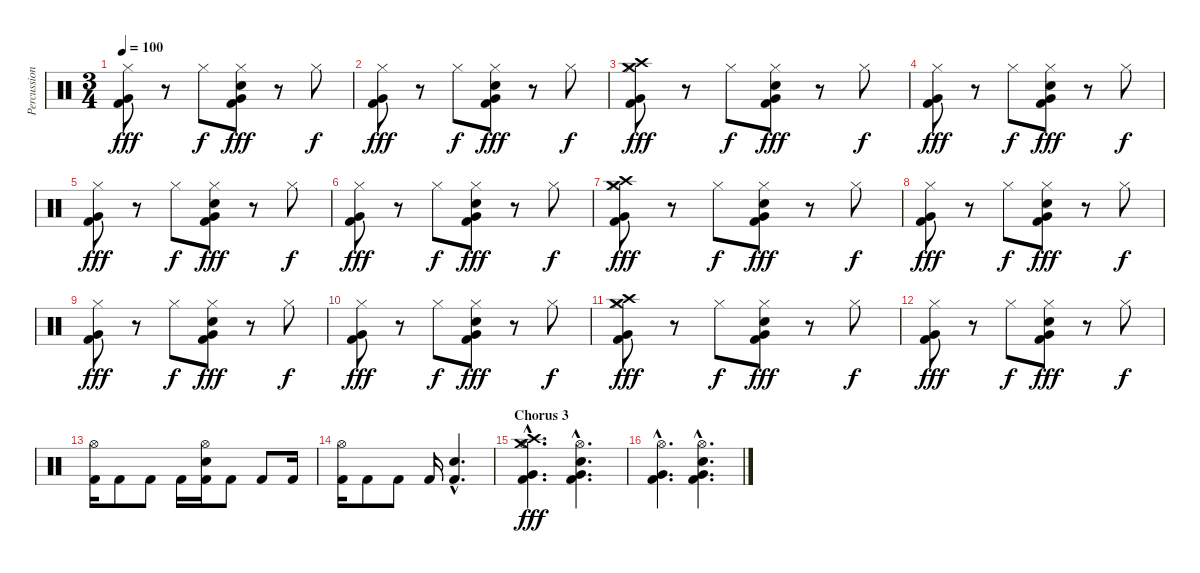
\track ("Percussion" "Percussion") {instrument percussion}
\staff {score}
\articulation defaults
\ts (3 4)
\tempo 100
\clef neutral
\ks c
("Very Low Tom (hit)" "Kick (hit) 2" "Hi-Hat (closed)").8{dy fff} r.8 "Hi-Hat (closed)".8{dy f} ("Snare (hit) 2" "Kick (hit) 2" "Very Low Tom (hit)" "Hi-Hat (closed)").8{dy fff} r.8 "Hi-Hat (closed)".8{dy f} |
("Very Low Tom (hit)" "Kick (hit) 2" "Hi-Hat (closed)").8{dy fff} r.8 "Hi-Hat (closed)".8{dy f} ("Snare (hit) 2" "Kick (hit) 2" "Very Low Tom (hit)" "Hi-Hat (closed)").8{dy fff} r.8 "Hi-Hat (closed)".8{dy f} |
("Very Low Tom (hit)" "Kick (hit) 2" "Crash medium (hit)" "Crash high (hit)" "Hi-Hat (closed)").8{dy fff} r.8 "Hi-Hat (closed)".8{dy f} ("Snare (hit) 2" "Kick (hit) 2" "Very Low Tom (hit)" "Hi-Hat (closed)").8{dy fff} r.8 "Hi-Hat (closed)".8{dy f} |
("Very Low Tom (hit)" "Kick (hit) 2" "Hi-Hat (closed)").8{dy fff} r.8 "Hi-Hat (closed)".8{dy f} ("Snare (hit) 2" "Kick (hit) 2" "Very Low Tom (hit)" "Hi-Hat (closed)").8{dy fff} r.8 "Hi-Hat (closed)".8{dy f} |
("Very Low Tom (hit)" "Kick (hit) 2" "Hi-Hat (closed)").8{dy fff} r.8 "Hi-Hat (closed)".8{dy f} ("Snare (hit) 2" "Kick (hit) 2" "Very Low Tom (hit)" "Hi-Hat (closed)").8{dy fff} r.8 "Hi-Hat (closed)".8{dy f} |
("Very Low Tom (hit)" "Kick (hit) 2" "Hi-Hat (closed)").8{dy fff} r.8 "Hi-Hat (closed)".8{dy f} ("Snare (hit) 2" "Kick (hit) 2" "Very Low Tom (hit)" "Hi-Hat (closed)").8{dy fff} r.8 "Hi-Hat (closed)".8{dy f} |
("Very Low Tom (hit)" "Kick (hit) 2" "Crash medium (hit)" "Crash high (hit)" "Hi-Hat (closed)").8{dy fff} r.8 "Hi-Hat (closed)".8{dy f} ("Snare (hit) 2" "Kick (hit) 2" "Very Low Tom (hit)" "Hi-Hat (closed)").8{dy fff} r.8 "Hi-Hat (closed)".8{dy f} |
("Very Low Tom (hit)" "Kick (hit) 2" "Hi-Hat (closed)").8{dy fff} r.8 "Hi-Hat (closed)".8{dy f} ("Snare (hit) 2" "Kick (hit) 2" "Very Low Tom (hit)" "Hi-Hat (closed)").8{dy fff} r.8 "Hi-Hat (closed)".8{dy f} |
("Very Low Tom (hit)" "Kick (hit) 2" "Hi-Hat (closed)").8{dy fff} r.8 "Hi-Hat (closed)".8{dy f} ("Snare (hit) 2" "Kick (hit) 2" "Very Low Tom (hit)" "Hi-Hat (closed)").8{dy fff} r.8 "Hi-Hat (closed)".8{dy f} |
("Very Low Tom (hit)" "Kick (hit) 2" "Hi-Hat (closed)").8{dy fff} r.8 "Hi-Hat (closed)".8{dy f} ("Snare (hit) 2" "Kick (hit) 2" "Very Low Tom (hit)" "Hi-Hat (closed)").8{dy fff} r.8 "Hi-Hat (closed)".8{dy f} |
("Very Low Tom (hit)" "Kick (hit) 2" "Crash medium (hit)" "Crash high (hit)" "Hi-Hat (closed)").8{dy fff} r.8 "Hi-Hat (closed)".8{dy f} ("Snare (hit) 2" "Kick (hit) 2" "Very Low Tom (hit)" "Hi-Hat (closed)").8{dy fff} r.8 "Hi-Hat (closed)".8{dy f} |
("Very Low Tom (hit)" "Kick (hit) 2" "Hi-Hat (closed)").8{dy fff} r.8 "Hi-Hat (closed)".8{dy f} ("Snare (hit) 2" "Kick (hit) 2" "Very Low Tom (hit)" "Hi-Hat (closed)").8{dy fff} r.8 "Hi-Hat (closed)".8{dy f} |
("Kick (hit) 2" "Hi-Hat (open)").16 "Kick (hit) 2".8 "Kick (hit) 2".8 "Kick (hit) 2".16 ("Snare (hit) 2" "Kick (hit) 2" "Hi-Hat (open)").16 "Kick (hit) 2".8 "Kick (hit) 2".8 "Kick (hit) 2".16 |
("Kick (hit) 2" "Hi-Hat (open)").16 "Kick (hit) 2".8 "Kick (hit) 2".8 "Kick (hit) 2".16 ("Snare (hit) 2"{hac} "Kick (hit) 2"{hac}).4{d} |
\section ("" "Chorus 3")
("Kick (hit) 2"{hac} "Very Low Tom (hit)"{hac} "Crash medium (hit)"{hac} "Crash high (hit)"{hac} "Hi-Hat (open)"{hac}).4{d dy fff} ("Snare (hit) 2"{hac} "Kick (hit) 2"{hac} "Very Low Tom (hit)"{hac} "Hi-Hat (open)"{hac}).4{d} |
("Kick (hit) 2"{hac} "Very Low Tom (hit)"{hac} "Hi-Hat (open)"{hac}).4{d} ("Snare (hit) 2"{hac} "Kick (hit) 2"{hac} "Very Low Tom (hit)"{hac} "Hi-Hat (open)"{hac}).4{d}
